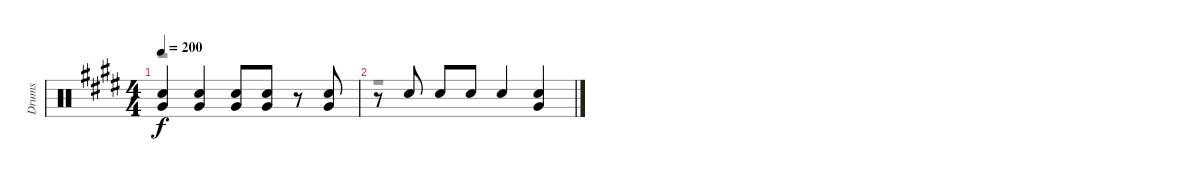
\track ("Drums" "Drums") {instrument percussion}
\staff {score}
\articulation defaults
\voice
\ts (4 4)
\tempo 200
\clef neutral
\ks e
("Snare (hit) 2" "Very Low Tom (hit)").4{dy f} ("Snare (hit) 2" "Very Low Tom (hit)").4 ("Snare (hit) 2" "Very Low Tom (hit)").8 ("Snare (hit) 2" "Very Low Tom (hit)").8 r.8 ("Snare (hit) 2" "Very Low Tom (hit)").8 |
r.8 "Snare (hit) 2".8 "Snare (hit) 2".8 "Snare (hit) 2".8 "Snare (hit) 2".4 ("Snare (hit) 2" "Very Low Tom (hit)").4
\voice
\clef neutral
\ottava regular
\simile none
\ks e
r.1{dy fff} |
r.1
